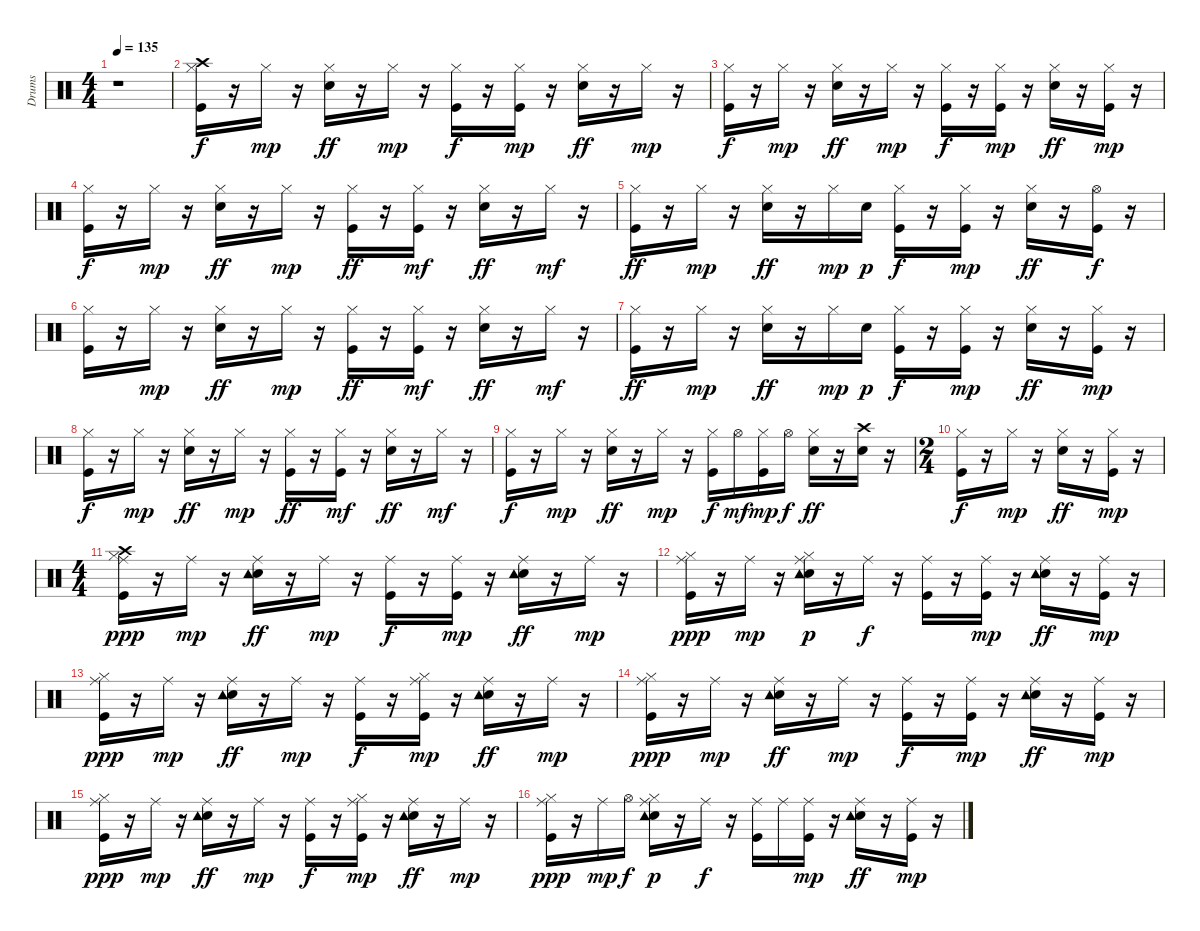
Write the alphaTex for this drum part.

\track ("Drums   " "Drums   ") {instrument percussion}
\staff {score}
\articulation defaults
\ts (4 4)
\tempo 135
\clef neutral
\ks c
r.1{dy ppp} |
("Kick (hit)" "Hi-Hat (closed)" "Crash high (hit)").16{dy f} r.16 "Hi-Hat (closed)".16{dy mp} r.16 ("Snare (hit) 2" "Hi-Hat (closed)").16{dy ff} r.16 "Hi-Hat (closed)".16{dy mp} r.16 ("Kick (hit)" "Hi-Hat (closed)").16{dy f} r.16 ("Kick (hit)" "Hi-Hat (closed)").16{dy mp} r.16 ("Snare (hit) 2" "Hi-Hat (closed)").16{dy ff} r.16 "Hi-Hat (closed)".16{dy mp} r.16 |
("Kick (hit)" "Hi-Hat (closed)").16{dy f} r.16 "Hi-Hat (closed)".16{dy mp} r.16 ("Snare (hit) 2" "Hi-Hat (closed)").16{dy ff} r.16 "Hi-Hat (closed)".16{dy mp} r.16 ("Kick (hit)" "Hi-Hat (closed)").16{dy f} r.16 ("Kick (hit)" "Hi-Hat (closed)").16{dy mp} r.16 ("Snare (hit) 2" "Hi-Hat (closed)").16{dy ff} r.16 ("Kick (hit)" "Hi-Hat (closed)").16{dy mp} r.16 |
("Kick (hit)" "Hi-Hat (closed)").16{dy f} r.16 "Hi-Hat (closed)".16{dy mp} r.16 ("Snare (hit) 2" "Hi-Hat (closed)").16{dy ff} r.16 "Hi-Hat (closed)".16{dy mp} r.16 ("Kick (hit)" "Hi-Hat (closed)").16{dy ff} r.16 ("Kick (hit)" "Hi-Hat (closed)").16{dy mf} r.16 ("Snare (hit) 2" "Hi-Hat (closed)").16{dy ff} r.16 "Hi-Hat (closed)".16{dy mf} r.16 |
("Kick (hit)" "Hi-Hat (closed)").16{dy ff} r.16 "Hi-Hat (closed)".16{dy mp} r.16 ("Snare (hit) 2" "Hi-Hat (closed)").16{dy ff} r.16 "Hi-Hat (closed)".16{dy mp} "Snare (hit) 2".16{dy p} ("Kick (hit)" "Hi-Hat (closed)").16{dy f} r.16 ("Kick (hit)" "Hi-Hat (closed)").16{dy mp} r.16 ("Snare (hit) 2" "Hi-Hat (closed)").16{dy ff} r.16 ("Kick (hit)" "Hi-Hat (open)").16{dy f} r.16 |
("Kick (hit)" "Hi-Hat (closed)").16 r.16 "Hi-Hat (closed)".16{dy mp} r.16 ("Snare (hit) 2" "Hi-Hat (closed)").16{dy ff} r.16 "Hi-Hat (closed)".16{dy mp} r.16 ("Kick (hit)" "Hi-Hat (closed)").16{dy ff} r.16 ("Kick (hit)" "Hi-Hat (closed)").16{dy mf} r.16 ("Snare (hit) 2" "Hi-Hat (closed)").16{dy ff} r.16 "Hi-Hat (closed)".16{dy mf} r.16 |
("Kick (hit)" "Hi-Hat (closed)").16{dy ff} r.16 "Hi-Hat (closed)".16{dy mp} r.16 ("Snare (hit) 2" "Hi-Hat (closed)").16{dy ff} r.16 "Hi-Hat (closed)".16{dy mp} "Snare (hit) 2".16{dy p} ("Kick (hit)" "Hi-Hat (closed)").16{dy f} r.16 ("Kick (hit)" "Hi-Hat (closed)").16{dy mp} r.16 ("Snare (hit) 2" "Hi-Hat (closed)").16{dy ff} r.16 ("Kick (hit)" "Hi-Hat (closed)").16{dy mp} r.16 |
("Kick (hit)" "Hi-Hat (closed)").16{dy f} r.16 "Hi-Hat (closed)".16{dy mp} r.16 ("Snare (hit) 2" "Hi-Hat (closed)").16{dy ff} r.16 "Hi-Hat (closed)".16{dy mp} r.16 ("Kick (hit)" "Hi-Hat (closed)").16{dy ff} r.16 ("Kick (hit)" "Hi-Hat (closed)").16{dy mf} r.16 ("Snare (hit) 2" "Hi-Hat (closed)").16{dy ff} r.16 "Hi-Hat (closed)".16{dy mf} r.16 |
("Kick (hit)" "Hi-Hat (closed)").16{dy f} r.16 "Hi-Hat (closed)".16{dy mp} r.16 ("Snare (hit) 2" "Hi-Hat (closed)").16{dy ff} r.16 "Hi-Hat (closed)".16{dy mp} r.16 ("Kick (hit)" "Hi-Hat (closed)").16{dy f} "Hi-Hat (open)".16{dy mf} ("Kick (hit)" "Hi-Hat (closed)").16{dy mp} "Hi-Hat (open)".16{dy f} ("Snare (hit) 2" "Hi-Hat (closed)").16{dy ff} r.16 ("Snare (hit) 2" "Crash high (hit)").16 r.16 |
\ts (2 4)
("Kick (hit)" "Hi-Hat (closed)").16{dy f} r.16 "Hi-Hat (closed)".16{dy mp} r.16 ("Snare (hit) 2" "Hi-Hat (closed)").16{dy ff} r.16 ("Kick (hit)" "Hi-Hat (closed)").16{dy mp} r.16 |
\ts (4 4)
("Kick (hit)" "Hi-Hat (closed)" "Ride (middle)" "Crash high (hit)").16{dy ppp} r.16 "Ride (middle)".16{dy mp} r.16 ("Snare (hit) 2" "Ride (middle)" "Tambourine (hit)").16{dy ff} r.16 "Ride (middle)".16{dy mp} r.16 ("Kick (hit)" "Ride (middle)").16{dy f} r.16 ("Kick (hit)" "Ride (middle)").16{dy mp} r.16 ("Snare (hit) 2" "Ride (middle)" "Tambourine (hit)").16{dy ff} r.16 "Ride (middle)".16{dy mp} r.16 |
("Kick (hit)" "Hi-Hat (closed)" "Ride (middle)").16{dy ppp} r.16 "Ride (middle)".16{dy mp} r.16 ("Snare (hit) 2" "Hi-Hat (closed)" "Ride (middle)" "Tambourine (hit)").16{dy p} r.16 "Ride (middle)".16{dy f} r.16 ("Kick (hit)" "Ride (middle)").16 r.16 ("Kick (hit)" "Ride (middle)").16{dy mp} r.16 ("Snare (hit) 2" "Ride (middle)" "Tambourine (hit)").16{dy ff} r.16 ("Kick (hit)" "Ride (middle)").16{dy mp} r.16 |
("Kick (hit)" "Hi-Hat (closed)" "Ride (middle)").16{dy ppp volume 13} r.16 "Ride (middle)".16{dy mp volume 13} r.16 ("Snare (hit) 2" "Ride (middle)" "Tambourine (hit)").16{dy ff volume 13} r.16 "Ride (middle)".16{dy mp volume 13} r.16 ("Kick (hit)" "Ride (middle)").16{dy f volume 12} r.16 ("Kick (hit)" "Hi-Hat (closed)" "Ride (middle)").16{dy mp volume 12} r.16 ("Snare (hit) 2" "Ride (middle)" "Tambourine (hit)").16{dy ff volume 12} r.16 "Ride (middle)".16{dy mp volume 12} r.16 |
("Kick (hit)" "Hi-Hat (closed)" "Ride (middle)").16{dy ppp volume 12} r.16 "Ride (middle)".16{dy mp volume 12} r.16 ("Snare (hit) 2" "Ride (middle)" "Tambourine (hit)").16{dy ff volume 12} r.16 "Ride (middle)".16{dy mp volume 11} r.16 ("Kick (hit)" "Ride (middle)").16{dy f volume 11} r.16 ("Kick (hit)" "Ride (middle)").16{dy mp volume 11} r.16 ("Snare (hit) 2" "Ride (middle)" "Tambourine (hit)").16{dy ff volume 11} r.16 ("Kick (hit)" "Ride (middle)").16{dy mp volume 11} r.16 |
("Kick (hit)" "Hi-Hat (closed)" "Ride (middle)").16{dy ppp volume 10} r.16 "Ride (middle)".16{dy mp volume 10} r.16 ("Snare (hit) 2" "Ride (middle)" "Tambourine (hit)").16{dy ff volume 10} r.16 "Ride (middle)".16{dy mp volume 10} r.16 ("Kick (hit)" "Ride (middle)").16{dy f volume 10} r.16 ("Kick (hit)" "Hi-Hat (closed)" "Ride (middle)").16{dy mp volume 10} r.16 ("Snare (hit) 2" "Ride (middle)" "Tambourine (hit)").16{dy ff volume 10} r.16 "Ride (middle)".16{dy mp volume 10} r.16 |
("Kick (hit)" "Hi-Hat (closed)" "Ride (middle)").16{dy ppp volume 9} r.16 "Ride (middle)".16{dy mp volume 9} "Hi-Hat (open)".16{dy f} ("Snare (hit) 2" "Hi-Hat (closed)" "Ride (middle)" "Tambourine (hit)").16{dy p volume 9} r.16 "Ride (middle)".16{dy f volume 9} r.16 ("Kick (hit)" "Ride (middle)").16{volume 9} "Ride (middle)".16 ("Kick (hit)" "Ride (middle)").16{dy mp volume 8} r.16 ("Snare (hit) 2" "Ride (middle)" "Tambourine (hit)").16{dy ff volume 8} r.16 ("Kick (hit)" "Ride (middle)").16{dy mp volume 8} r.16
